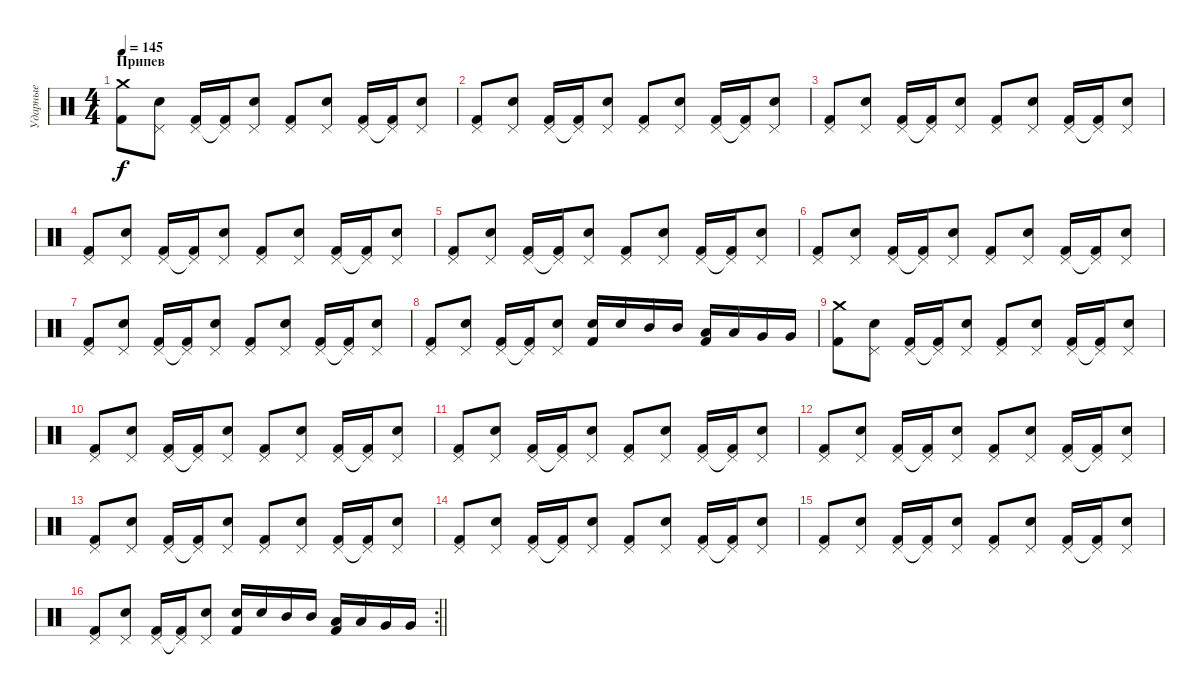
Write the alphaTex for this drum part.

\track ("Ударные" "Ударные") {instrument percussion}
\staff {score}
\articulation defaults
\ts (4 4)
\section ("" "Припев")
\tempo 145
\clef neutral
\ks c
("Crash medium (hit)" "Kick (hit) 2").8{dy f} ("Pedal Hi-Hat (hit)" "Electric Snare (hit)").8 ("Pedal Hi-Hat (hit)" "Kick (hit) 2").16 ("Pedal Hi-Hat (hit)"{t} "Kick (hit) 2").16 ("Pedal Hi-Hat (hit)" "Electric Snare (hit)").8 ("Pedal Hi-Hat (hit)" "Kick (hit) 2").8 ("Pedal Hi-Hat (hit)" "Electric Snare (hit)").8 ("Pedal Hi-Hat (hit)" "Kick (hit) 2").16 ("Pedal Hi-Hat (hit)"{t} "Kick (hit) 2").16 ("Pedal Hi-Hat (hit)" "Electric Snare (hit)").8 |
("Pedal Hi-Hat (hit)" "Kick (hit) 2").8 ("Pedal Hi-Hat (hit)" "Electric Snare (hit)").8 ("Pedal Hi-Hat (hit)" "Kick (hit) 2").16 ("Pedal Hi-Hat (hit)"{t} "Kick (hit) 2").16 ("Pedal Hi-Hat (hit)" "Electric Snare (hit)").8 ("Pedal Hi-Hat (hit)" "Kick (hit) 2").8 ("Pedal Hi-Hat (hit)" "Electric Snare (hit)").8 ("Pedal Hi-Hat (hit)" "Kick (hit) 2").16 ("Pedal Hi-Hat (hit)"{t} "Kick (hit) 2").16 ("Pedal Hi-Hat (hit)" "Electric Snare (hit)").8 |
("Pedal Hi-Hat (hit)" "Kick (hit) 2").8 ("Pedal Hi-Hat (hit)" "Electric Snare (hit)").8 ("Pedal Hi-Hat (hit)" "Kick (hit) 2").16 ("Pedal Hi-Hat (hit)"{t} "Kick (hit) 2").16 ("Pedal Hi-Hat (hit)" "Electric Snare (hit)").8 ("Pedal Hi-Hat (hit)" "Kick (hit) 2").8 ("Pedal Hi-Hat (hit)" "Electric Snare (hit)").8 ("Pedal Hi-Hat (hit)" "Kick (hit) 2").16 ("Pedal Hi-Hat (hit)"{t} "Kick (hit) 2").16 ("Pedal Hi-Hat (hit)" "Electric Snare (hit)").8 |
("Pedal Hi-Hat (hit)" "Kick (hit) 2").8 ("Pedal Hi-Hat (hit)" "Electric Snare (hit)").8 ("Pedal Hi-Hat (hit)" "Kick (hit) 2").16 ("Pedal Hi-Hat (hit)"{t} "Kick (hit) 2").16 ("Pedal Hi-Hat (hit)" "Electric Snare (hit)").8 ("Pedal Hi-Hat (hit)" "Kick (hit) 2").8 ("Pedal Hi-Hat (hit)" "Electric Snare (hit)").8 ("Pedal Hi-Hat (hit)" "Kick (hit) 2").16 ("Pedal Hi-Hat (hit)"{t} "Kick (hit) 2").16 ("Pedal Hi-Hat (hit)" "Electric Snare (hit)").8 |
("Pedal Hi-Hat (hit)" "Kick (hit) 2").8 ("Pedal Hi-Hat (hit)" "Electric Snare (hit)").8 ("Pedal Hi-Hat (hit)" "Kick (hit) 2").16 ("Pedal Hi-Hat (hit)"{t} "Kick (hit) 2").16 ("Pedal Hi-Hat (hit)" "Electric Snare (hit)").8 ("Pedal Hi-Hat (hit)" "Kick (hit) 2").8 ("Pedal Hi-Hat (hit)" "Electric Snare (hit)").8 ("Pedal Hi-Hat (hit)" "Kick (hit) 2").16 ("Pedal Hi-Hat (hit)"{t} "Kick (hit) 2").16 ("Pedal Hi-Hat (hit)" "Electric Snare (hit)").8 |
("Pedal Hi-Hat (hit)" "Kick (hit) 2").8 ("Pedal Hi-Hat (hit)" "Electric Snare (hit)").8 ("Pedal Hi-Hat (hit)" "Kick (hit) 2").16 ("Pedal Hi-Hat (hit)"{t} "Kick (hit) 2").16 ("Pedal Hi-Hat (hit)" "Electric Snare (hit)").8 ("Pedal Hi-Hat (hit)" "Kick (hit) 2").8 ("Pedal Hi-Hat (hit)" "Electric Snare (hit)").8 ("Pedal Hi-Hat (hit)" "Kick (hit) 2").16 ("Pedal Hi-Hat (hit)"{t} "Kick (hit) 2").16 ("Pedal Hi-Hat (hit)" "Electric Snare (hit)").8 |
("Pedal Hi-Hat (hit)" "Kick (hit) 2").8 ("Pedal Hi-Hat (hit)" "Electric Snare (hit)").8 ("Pedal Hi-Hat (hit)" "Kick (hit) 2").16 ("Pedal Hi-Hat (hit)"{t} "Kick (hit) 2").16 ("Pedal Hi-Hat (hit)" "Electric Snare (hit)").8 ("Pedal Hi-Hat (hit)" "Kick (hit) 2").8 ("Pedal Hi-Hat (hit)" "Electric Snare (hit)").8 ("Pedal Hi-Hat (hit)" "Kick (hit) 2").16 ("Pedal Hi-Hat (hit)"{t} "Kick (hit) 2").16 ("Pedal Hi-Hat (hit)" "Electric Snare (hit)").8 |
("Pedal Hi-Hat (hit)" "Kick (hit) 2").8 ("Pedal Hi-Hat (hit)" "Electric Snare (hit)").8 ("Pedal Hi-Hat (hit)" "Kick (hit) 2").16 ("Pedal Hi-Hat (hit)"{t} "Kick (hit) 2").16 ("Pedal Hi-Hat (hit)" "Electric Snare (hit)").8 ("Electric Snare (hit)" "Kick (hit) 2").16 "Electric Snare (hit)".16 "Mid Tom (hit)".16 "Mid Tom (hit)".16 ("Low Tom (hit)" "Kick (hit) 2").16 "Low Tom (hit)".16 "Very Low Tom (hit)".16 "Very Low Tom (hit)".16 |
("Crash medium (hit)" "Kick (hit) 2").8 ("Pedal Hi-Hat (hit)" "Electric Snare (hit)").8 ("Pedal Hi-Hat (hit)" "Kick (hit) 2").16 ("Pedal Hi-Hat (hit)"{t} "Kick (hit) 2").16 ("Pedal Hi-Hat (hit)" "Electric Snare (hit)").8 ("Pedal Hi-Hat (hit)" "Kick (hit) 2").8 ("Pedal Hi-Hat (hit)" "Electric Snare (hit)").8 ("Pedal Hi-Hat (hit)" "Kick (hit) 2").16 ("Pedal Hi-Hat (hit)"{t} "Kick (hit) 2").16 ("Pedal Hi-Hat (hit)" "Electric Snare (hit)").8 |
("Pedal Hi-Hat (hit)" "Kick (hit) 2").8 ("Pedal Hi-Hat (hit)" "Electric Snare (hit)").8 ("Pedal Hi-Hat (hit)" "Kick (hit) 2").16 ("Pedal Hi-Hat (hit)"{t} "Kick (hit) 2").16 ("Pedal Hi-Hat (hit)" "Electric Snare (hit)").8 ("Pedal Hi-Hat (hit)" "Kick (hit) 2").8 ("Pedal Hi-Hat (hit)" "Electric Snare (hit)").8 ("Pedal Hi-Hat (hit)" "Kick (hit) 2").16 ("Pedal Hi-Hat (hit)"{t} "Kick (hit) 2").16 ("Pedal Hi-Hat (hit)" "Electric Snare (hit)").8 |
("Pedal Hi-Hat (hit)" "Kick (hit) 2").8 ("Pedal Hi-Hat (hit)" "Electric Snare (hit)").8 ("Pedal Hi-Hat (hit)" "Kick (hit) 2").16 ("Pedal Hi-Hat (hit)"{t} "Kick (hit) 2").16 ("Pedal Hi-Hat (hit)" "Electric Snare (hit)").8 ("Pedal Hi-Hat (hit)" "Kick (hit) 2").8 ("Pedal Hi-Hat (hit)" "Electric Snare (hit)").8 ("Pedal Hi-Hat (hit)" "Kick (hit) 2").16 ("Pedal Hi-Hat (hit)"{t} "Kick (hit) 2").16 ("Pedal Hi-Hat (hit)" "Electric Snare (hit)").8 |
("Pedal Hi-Hat (hit)" "Kick (hit) 2").8 ("Pedal Hi-Hat (hit)" "Electric Snare (hit)").8 ("Pedal Hi-Hat (hit)" "Kick (hit) 2").16 ("Pedal Hi-Hat (hit)"{t} "Kick (hit) 2").16 ("Pedal Hi-Hat (hit)" "Electric Snare (hit)").8 ("Pedal Hi-Hat (hit)" "Kick (hit) 2").8 ("Pedal Hi-Hat (hit)" "Electric Snare (hit)").8 ("Pedal Hi-Hat (hit)" "Kick (hit) 2").16 ("Pedal Hi-Hat (hit)"{t} "Kick (hit) 2").16 ("Pedal Hi-Hat (hit)" "Electric Snare (hit)").8 |
("Pedal Hi-Hat (hit)" "Kick (hit) 2").8 ("Pedal Hi-Hat (hit)" "Electric Snare (hit)").8 ("Pedal Hi-Hat (hit)" "Kick (hit) 2").16 ("Pedal Hi-Hat (hit)"{t} "Kick (hit) 2").16 ("Pedal Hi-Hat (hit)" "Electric Snare (hit)").8 ("Pedal Hi-Hat (hit)" "Kick (hit) 2").8 ("Pedal Hi-Hat (hit)" "Electric Snare (hit)").8 ("Pedal Hi-Hat (hit)" "Kick (hit) 2").16 ("Pedal Hi-Hat (hit)"{t} "Kick (hit) 2").16 ("Pedal Hi-Hat (hit)" "Electric Snare (hit)").8 |
("Pedal Hi-Hat (hit)" "Kick (hit) 2").8 ("Pedal Hi-Hat (hit)" "Electric Snare (hit)").8 ("Pedal Hi-Hat (hit)" "Kick (hit) 2").16 ("Pedal Hi-Hat (hit)"{t} "Kick (hit) 2").16 ("Pedal Hi-Hat (hit)" "Electric Snare (hit)").8 ("Pedal Hi-Hat (hit)" "Kick (hit) 2").8 ("Pedal Hi-Hat (hit)" "Electric Snare (hit)").8 ("Pedal Hi-Hat (hit)" "Kick (hit) 2").16 ("Pedal Hi-Hat (hit)"{t} "Kick (hit) 2").16 ("Pedal Hi-Hat (hit)" "Electric Snare (hit)").8 |
("Pedal Hi-Hat (hit)" "Kick (hit) 2").8 ("Pedal Hi-Hat (hit)" "Electric Snare (hit)").8 ("Pedal Hi-Hat (hit)" "Kick (hit) 2").16 ("Pedal Hi-Hat (hit)"{t} "Kick (hit) 2").16 ("Pedal Hi-Hat (hit)" "Electric Snare (hit)").8 ("Pedal Hi-Hat (hit)" "Kick (hit) 2").8 ("Pedal Hi-Hat (hit)" "Electric Snare (hit)").8 ("Pedal Hi-Hat (hit)" "Kick (hit) 2").16 ("Pedal Hi-Hat (hit)"{t} "Kick (hit) 2").16 ("Pedal Hi-Hat (hit)" "Electric Snare (hit)").8 |
\rc 2
\barLineRight lightlight
("Pedal Hi-Hat (hit)" "Kick (hit) 2").8 ("Pedal Hi-Hat (hit)" "Electric Snare (hit)").8 ("Pedal Hi-Hat (hit)" "Kick (hit) 2").16 ("Pedal Hi-Hat (hit)"{t} "Kick (hit) 2").16 ("Pedal Hi-Hat (hit)" "Electric Snare (hit)").8 ("Electric Snare (hit)" "Kick (hit) 2").16 "Electric Snare (hit)".16 "Mid Tom (hit)".16 "Mid Tom (hit)".16 ("Low Tom (hit)" "Kick (hit) 2").16 "Low Tom (hit)".16 "Very Low Tom (hit)".16 "Very Low Tom (hit)".16
